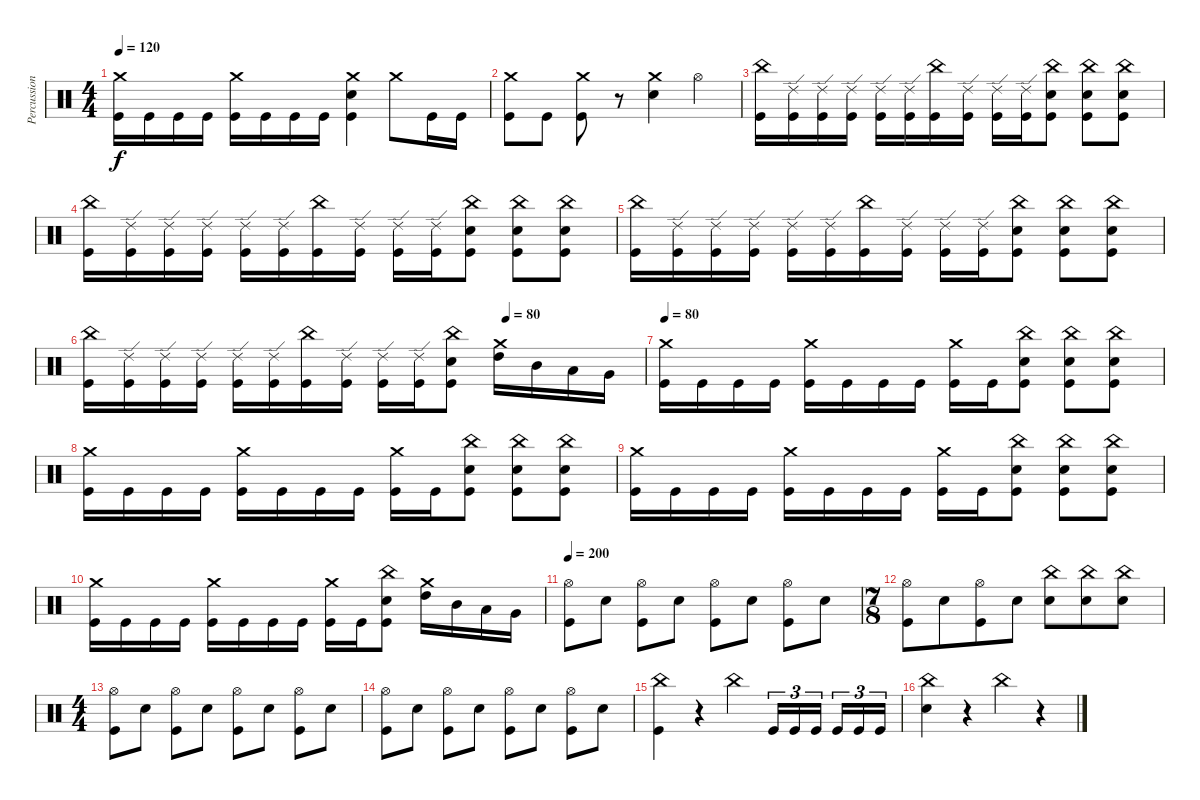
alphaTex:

\track ("Percussion" "Percussion") {instrument percussion}
\staff {score}
\articulation defaults
\ts (4 4)
\tempo 120
\clef neutral
\ks c
("Crash medium (hit)" "Kick (hit)").16{dy f} "Kick (hit)".16 "Kick (hit)".16 "Kick (hit)".16 ("Crash medium (hit)" "Kick (hit)").16 "Kick (hit)".16 "Kick (hit)".16 "Kick (hit)".16 ("Crash medium (hit)" "Snare (hit) 2" "Kick (hit)").4 "Crash medium (hit)".8 "Kick (hit)".16 "Kick (hit)".16 |
("Crash medium (hit)" "Kick (hit)").8 "Kick (hit)".8 ("Crash medium (hit)" "Kick (hit)").8 r.8 ("Crash medium (hit)" "Snare (hit) 2").4 "Hi-Hat (open)".4 |
("China (hit)" "Kick (hit)").16 ("Ride (edge) 2" "Kick (hit)").16 ("Ride (edge) 2" "Kick (hit)").16 ("Ride (edge) 2" "Kick (hit)").16 ("Ride (edge) 2" "Kick (hit)").16 ("Ride (edge) 2" "Kick (hit)").16 ("China (hit)" "Kick (hit)").16 ("Ride (edge) 2" "Kick (hit)").16 ("Ride (edge) 2" "Kick (hit)").16 ("Ride (edge) 2" "Kick (hit)").16 ("China (hit)" "Snare (hit) 2" "Kick (hit)").8 ("China (hit)" "Snare (hit) 2" "Kick (hit)").8 ("China (hit)" "Snare (hit) 2" "Kick (hit)").8 |
("China (hit)" "Kick (hit)").16 ("Ride (edge) 2" "Kick (hit)").16 ("Ride (edge) 2" "Kick (hit)").16 ("Ride (edge) 2" "Kick (hit)").16 ("Ride (edge) 2" "Kick (hit)").16 ("Ride (edge) 2" "Kick (hit)").16 ("China (hit)" "Kick (hit)").16 ("Ride (edge) 2" "Kick (hit)").16 ("Ride (edge) 2" "Kick (hit)").16 ("Ride (edge) 2" "Kick (hit)").16 ("China (hit)" "Snare (hit) 2" "Kick (hit)").8 ("China (hit)" "Snare (hit) 2" "Kick (hit)").8 ("China (hit)" "Snare (hit) 2" "Kick (hit)").8 |
("China (hit)" "Kick (hit)").16 ("Ride (edge) 2" "Kick (hit)").16 ("Ride (edge) 2" "Kick (hit)").16 ("Ride (edge) 2" "Kick (hit)").16 ("Ride (edge) 2" "Kick (hit)").16 ("Ride (edge) 2" "Kick (hit)").16 ("China (hit)" "Kick (hit)").16 ("Ride (edge) 2" "Kick (hit)").16 ("Ride (edge) 2" "Kick (hit)").16 ("Ride (edge) 2" "Kick (hit)").16 ("China (hit)" "Snare (hit) 2" "Kick (hit)").8 ("China (hit)" "Snare (hit) 2" "Kick (hit)").8 ("China (hit)" "Snare (hit) 2" "Kick (hit)").8 |
\tempo (80 0.75)
("China (hit)" "Kick (hit)").16 ("Ride (edge) 2" "Kick (hit)").16 ("Ride (edge) 2" "Kick (hit)").16 ("Ride (edge) 2" "Kick (hit)").16 ("Ride (edge) 2" "Kick (hit)").16 ("Ride (edge) 2" "Kick (hit)").16 ("China (hit)" "Kick (hit)").16 ("Ride (edge) 2" "Kick (hit)").16 ("Ride (edge) 2" "Kick (hit)").16 ("Ride (edge) 2" "Kick (hit)").16 ("China (hit)" "Snare (hit) 2" "Kick (hit)").8 ("Crash medium (hit)" "High Tom (hit)").16 "Mid Tom (hit)".16 "Low Tom (hit)".16 "Very Low Tom (hit)".16 |
\tempo 80
("Crash medium (hit)" "Kick (hit)").16 "Kick (hit)".16 "Kick (hit)".16 "Kick (hit)".16 ("Crash medium (hit)" "Kick (hit)").16 "Kick (hit)".16 "Kick (hit)".16 "Kick (hit)".16 ("Crash medium (hit)" "Kick (hit)").16 "Kick (hit)".16 ("China (hit)" "Snare (hit) 2" "Kick (hit)").8 ("China (hit)" "Snare (hit) 2" "Kick (hit)").8 ("China (hit)" "Snare (hit) 2" "Kick (hit)").8 |
("Crash medium (hit)" "Kick (hit)").16 "Kick (hit)".16 "Kick (hit)".16 "Kick (hit)".16 ("Crash medium (hit)" "Kick (hit)").16 "Kick (hit)".16 "Kick (hit)".16 "Kick (hit)".16 ("Crash medium (hit)" "Kick (hit)").16 "Kick (hit)".16 ("China (hit)" "Snare (hit) 2" "Kick (hit)").8 ("China (hit)" "Snare (hit) 2" "Kick (hit)").8 ("China (hit)" "Snare (hit) 2" "Kick (hit)").8 |
("Crash medium (hit)" "Kick (hit)").16 "Kick (hit)".16 "Kick (hit)".16 "Kick (hit)".16 ("Crash medium (hit)" "Kick (hit)").16 "Kick (hit)".16 "Kick (hit)".16 "Kick (hit)".16 ("Crash medium (hit)" "Kick (hit)").16 "Kick (hit)".16 ("China (hit)" "Snare (hit) 2" "Kick (hit)").8 ("China (hit)" "Snare (hit) 2" "Kick (hit)").8 ("China (hit)" "Snare (hit) 2" "Kick (hit)").8 |
("Crash medium (hit)" "Kick (hit)").16 "Kick (hit)".16 "Kick (hit)".16 "Kick (hit)".16 ("Crash medium (hit)" "Kick (hit)").16 "Kick (hit)".16 "Kick (hit)".16 "Kick (hit)".16 ("Crash medium (hit)" "Kick (hit)").16 "Kick (hit)".16 ("China (hit)" "Snare (hit) 2" "Kick (hit)").8 ("Crash medium (hit)" "High Tom (hit)").16 "Mid Tom (hit)".16 "Low Tom (hit)".16 "Very Low Tom (hit)".16 |
\tempo 200
("Hi-Hat (open)" "Kick (hit)").8 "Snare (hit) 2".8 ("Hi-Hat (open)" "Kick (hit)").8 "Snare (hit) 2".8 ("Hi-Hat (open)" "Kick (hit)").8 "Snare (hit) 2".8 ("Hi-Hat (open)" "Kick (hit)").8 "Snare (hit) 2".8 |
\ts (7 8)
("Hi-Hat (open)" "Kick (hit)").8 "Snare (hit) 2".8 ("Hi-Hat (open)" "Kick (hit)").8 "Snare (hit) 2".8 ("China (hit)" "Snare (hit) 2").8 ("China (hit)" "Snare (hit) 2").8 ("China (hit)" "Snare (hit) 2").8 |
\ts (4 4)
("Hi-Hat (open)" "Kick (hit)").8 "Snare (hit) 2".8 ("Hi-Hat (open)" "Kick (hit)").8 "Snare (hit) 2".8 ("Hi-Hat (open)" "Kick (hit)").8 "Snare (hit) 2".8 ("Hi-Hat (open)" "Kick (hit)").8 "Snare (hit) 2".8 |
("Hi-Hat (open)" "Kick (hit)").8 "Snare (hit) 2".8 ("Hi-Hat (open)" "Kick (hit)").8 "Snare (hit) 2".8 ("Hi-Hat (open)" "Kick (hit)").8 "Snare (hit) 2".8 ("Hi-Hat (open)" "Kick (hit)").8 "Snare (hit) 2".8 |
("China (hit)" "Kick (hit)").4 r.4 "China (hit)".4 "Kick (hit)".16{tu (3 2)} "Kick (hit)".16{tu (3 2)} "Kick (hit)".16{tu (3 2) beam splitsecondary} "Kick (hit)".16{tu (3 2)} "Kick (hit)".16{tu (3 2)} "Kick (hit)".16{tu (3 2)} |
("China (hit)" "Snare (hit) 2").4 r.4 "China (hit)".4 r.4
